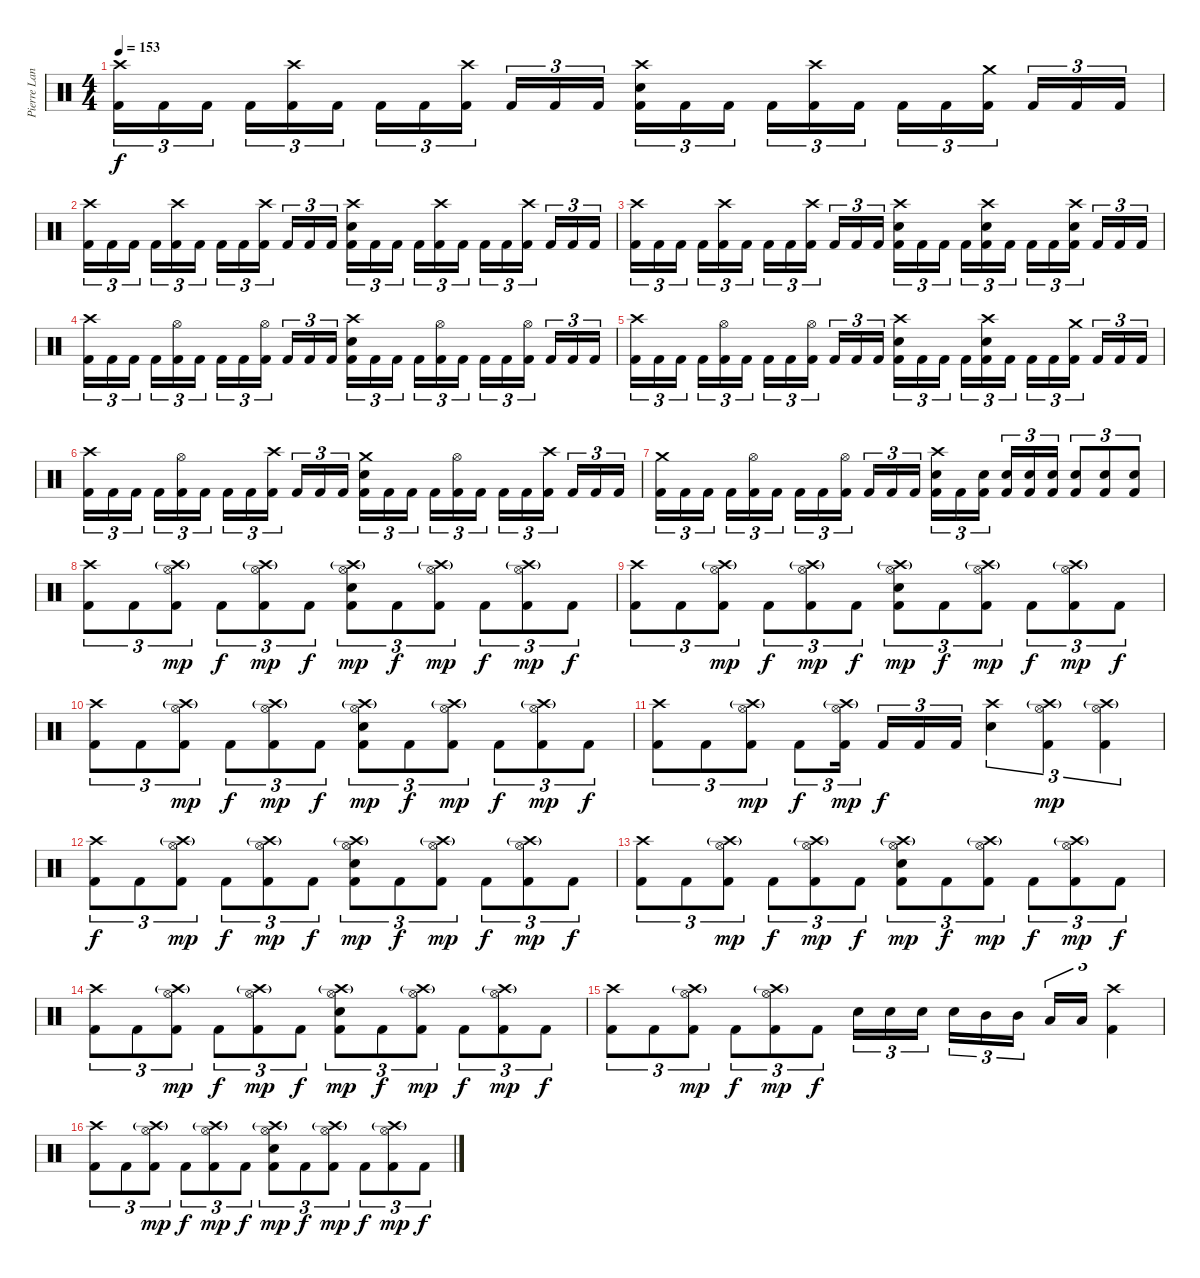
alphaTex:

\track ("Pierre Langlois (Drums)" "Pierre Lan") {instrument percussion}
\staff {score}
\articulation defaults
\ts (4 4)
\tempo 153
\clef neutral
\ks c
("Crash high (hit)" "Kick (hit) 2").16{tu (3 2) dy f} "Kick (hit) 2".16{tu (3 2)} "Kick (hit) 2".16{tu (3 2)} "Kick (hit) 2".16{tu (3 2)} ("Crash high (hit)" "Kick (hit) 2").16{tu (3 2)} "Kick (hit) 2".16{tu (3 2)} "Kick (hit) 2".16{tu (3 2)} "Kick (hit) 2".16{tu (3 2)} ("Crash high (hit)" "Kick (hit) 2").16{tu (3 2)} "Kick (hit) 2".16{tu (3 2)} "Kick (hit) 2".16{tu (3 2)} "Kick (hit) 2".16{tu (3 2)} ("Snare (hit) 2" "Crash high (hit)" "Kick (hit) 2").16{tu (3 2)} "Kick (hit) 2".16{tu (3 2)} "Kick (hit) 2".16{tu (3 2)} "Kick (hit) 2".16{tu (3 2)} ("Crash high (hit)" "Kick (hit) 2").16{tu (3 2)} "Kick (hit) 2".16{tu (3 2)} "Kick (hit) 2".16{tu (3 2)} "Kick (hit) 2".16{tu (3 2)} ("Crash medium (hit)" "Kick (hit) 2").16{tu (3 2)} "Kick (hit) 2".16{tu (3 2)} "Kick (hit) 2".16{tu (3 2)} "Kick (hit) 2".16{tu (3 2)} |
("Crash high (hit)" "Kick (hit) 2").16{tu (3 2)} "Kick (hit) 2".16{tu (3 2)} "Kick (hit) 2".16{tu (3 2)} "Kick (hit) 2".16{tu (3 2)} ("Crash high (hit)" "Kick (hit) 2").16{tu (3 2)} "Kick (hit) 2".16{tu (3 2)} "Kick (hit) 2".16{tu (3 2)} "Kick (hit) 2".16{tu (3 2)} ("Crash high (hit)" "Kick (hit) 2").16{tu (3 2)} "Kick (hit) 2".16{tu (3 2)} "Kick (hit) 2".16{tu (3 2)} "Kick (hit) 2".16{tu (3 2)} ("Snare (hit) 2" "Crash high (hit)" "Kick (hit) 2").16{tu (3 2)} "Kick (hit) 2".16{tu (3 2)} "Kick (hit) 2".16{tu (3 2)} "Kick (hit) 2".16{tu (3 2)} ("Crash high (hit)" "Kick (hit) 2").16{tu (3 2)} "Kick (hit) 2".16{tu (3 2)} "Kick (hit) 2".16{tu (3 2)} "Kick (hit) 2".16{tu (3 2)} ("Crash high (hit)" "Kick (hit) 2").16{tu (3 2)} "Kick (hit) 2".16{tu (3 2)} "Kick (hit) 2".16{tu (3 2)} "Kick (hit) 2".16{tu (3 2)} |
("Crash high (hit)" "Kick (hit) 2").16{tu (3 2)} "Kick (hit) 2".16{tu (3 2)} "Kick (hit) 2".16{tu (3 2)} "Kick (hit) 2".16{tu (3 2)} ("Crash high (hit)" "Kick (hit) 2").16{tu (3 2)} "Kick (hit) 2".16{tu (3 2)} "Kick (hit) 2".16{tu (3 2)} "Kick (hit) 2".16{tu (3 2)} ("Crash high (hit)" "Kick (hit) 2").16{tu (3 2)} "Kick (hit) 2".16{tu (3 2)} "Kick (hit) 2".16{tu (3 2)} "Kick (hit) 2".16{tu (3 2)} ("Snare (hit) 2" "Crash high (hit)" "Kick (hit) 2").16{tu (3 2)} "Kick (hit) 2".16{tu (3 2)} "Kick (hit) 2".16{tu (3 2)} "Kick (hit) 2".16{tu (3 2)} ("Snare (hit) 2" "Crash high (hit)" "Kick (hit) 2").16{tu (3 2)} "Kick (hit) 2".16{tu (3 2)} "Kick (hit) 2".16{tu (3 2)} "Kick (hit) 2".16{tu (3 2)} ("Snare (hit) 2" "Crash high (hit)" "Kick (hit) 2").16{tu (3 2)} "Kick (hit) 2".16{tu (3 2)} "Kick (hit) 2".16{tu (3 2)} "Kick (hit) 2".16{tu (3 2)} |
("Crash high (hit)" "Kick (hit) 2").16{tu (3 2)} "Kick (hit) 2".16{tu (3 2)} "Kick (hit) 2".16{tu (3 2)} "Kick (hit) 2".16{tu (3 2)} ("Hi-Hat (open)" "Kick (hit) 2").16{tu (3 2)} "Kick (hit) 2".16{tu (3 2)} "Kick (hit) 2".16{tu (3 2)} "Kick (hit) 2".16{tu (3 2)} ("Hi-Hat (open)" "Kick (hit) 2").16{tu (3 2)} "Kick (hit) 2".16{tu (3 2)} "Kick (hit) 2".16{tu (3 2)} "Kick (hit) 2".16{tu (3 2)} ("Snare (hit) 2" "Crash high (hit)" "Kick (hit) 2").16{tu (3 2)} "Kick (hit) 2".16{tu (3 2)} "Kick (hit) 2".16{tu (3 2)} "Kick (hit) 2".16{tu (3 2)} ("Hi-Hat (open)" "Kick (hit) 2").16{tu (3 2)} "Kick (hit) 2".16{tu (3 2)} "Kick (hit) 2".16{tu (3 2)} "Kick (hit) 2".16{tu (3 2)} ("Hi-Hat (open)" "Kick (hit) 2").16{tu (3 2)} "Kick (hit) 2".16{tu (3 2)} "Kick (hit) 2".16{tu (3 2)} "Kick (hit) 2".16{tu (3 2)} |
("Crash high (hit)" "Kick (hit) 2").16{tu (3 2)} "Kick (hit) 2".16{tu (3 2)} "Kick (hit) 2".16{tu (3 2)} "Kick (hit) 2".16{tu (3 2)} ("Hi-Hat (open)" "Kick (hit) 2").16{tu (3 2)} "Kick (hit) 2".16{tu (3 2)} "Kick (hit) 2".16{tu (3 2)} "Kick (hit) 2".16{tu (3 2)} ("Hi-Hat (open)" "Kick (hit) 2").16{tu (3 2)} "Kick (hit) 2".16{tu (3 2)} "Kick (hit) 2".16{tu (3 2)} "Kick (hit) 2".16{tu (3 2)} ("Snare (hit) 2" "Crash high (hit)" "Kick (hit) 2").16{tu (3 2)} "Kick (hit) 2".16{tu (3 2)} "Kick (hit) 2".16{tu (3 2)} "Kick (hit) 2".16{tu (3 2)} ("Snare (hit) 2" "Crash high (hit)" "Kick (hit) 2").16{tu (3 2)} "Kick (hit) 2".16{tu (3 2)} "Kick (hit) 2".16{tu (3 2)} "Kick (hit) 2".16{tu (3 2)} ("Crash medium (hit)" "Kick (hit) 2").16{tu (3 2)} "Kick (hit) 2".16{tu (3 2)} "Kick (hit) 2".16{tu (3 2)} "Kick (hit) 2".16{tu (3 2)} |
("Crash high (hit)" "Kick (hit) 2").16{tu (3 2)} "Kick (hit) 2".16{tu (3 2)} "Kick (hit) 2".16{tu (3 2)} "Kick (hit) 2".16{tu (3 2)} ("Hi-Hat (open)" "Kick (hit) 2").16{tu (3 2)} "Kick (hit) 2".16{tu (3 2)} "Kick (hit) 2".16{tu (3 2)} "Kick (hit) 2".16{tu (3 2)} ("Crash high (hit)" "Kick (hit) 2").16{tu (3 2)} "Kick (hit) 2".16{tu (3 2)} "Kick (hit) 2".16{tu (3 2)} "Kick (hit) 2".16{tu (3 2)} ("Snare (hit) 2" "Crash medium (hit)" "Kick (hit) 2").16{tu (3 2)} "Kick (hit) 2".16{tu (3 2)} "Kick (hit) 2".16{tu (3 2)} "Kick (hit) 2".16{tu (3 2)} ("Hi-Hat (open)" "Kick (hit) 2").16{tu (3 2)} "Kick (hit) 2".16{tu (3 2)} "Kick (hit) 2".16{tu (3 2)} "Kick (hit) 2".16{tu (3 2)} ("Crash high (hit)" "Kick (hit) 2").16{tu (3 2)} "Kick (hit) 2".16{tu (3 2)} "Kick (hit) 2".16{tu (3 2)} "Kick (hit) 2".16{tu (3 2)} |
("Crash medium (hit)" "Kick (hit) 2").16{tu (3 2)} "Kick (hit) 2".16{tu (3 2)} "Kick (hit) 2".16{tu (3 2)} "Kick (hit) 2".16{tu (3 2)} ("Hi-Hat (open)" "Kick (hit) 2").16{tu (3 2)} "Kick (hit) 2".16{tu (3 2)} "Kick (hit) 2".16{tu (3 2)} "Kick (hit) 2".16{tu (3 2)} ("Hi-Hat (open)" "Kick (hit) 2").16{tu (3 2)} "Kick (hit) 2".16{tu (3 2)} "Kick (hit) 2".16{tu (3 2)} "Kick (hit) 2".16{tu (3 2)} ("Snare (hit) 2" "Crash high (hit)" "Kick (hit) 2").16{tu (3 2)} "Kick (hit) 2".16{tu (3 2)} ("Snare (hit) 2" "Kick (hit) 2").16{tu (3 2)} ("Snare (hit) 2" "Kick (hit) 2").16{tu (3 2)} ("Snare (hit) 2" "Kick (hit) 2").16{tu (3 2)} ("Snare (hit) 2" "Kick (hit) 2").16{tu (3 2)} ("Snare (hit) 2" "Kick (hit) 2").8{tu (3 2)} ("Snare (hit) 2" "Kick (hit) 2").8{tu (3 2)} ("Snare (hit) 2" "Kick (hit) 2").8{tu (3 2)} |
("Crash high (hit)" "Kick (hit) 2").8{tu (3 2)} "Kick (hit) 2".8{tu (3 2)} ("Crash high (hit)"{g} "Hi-Hat (open)" "Kick (hit) 2").8{tu (3 2) dy mp} "Kick (hit) 2".8{tu (3 2) dy f} ("Crash high (hit)"{g} "Hi-Hat (open)" "Kick (hit) 2").8{tu (3 2) dy mp} "Kick (hit) 2".8{tu (3 2) dy f} ("Crash high (hit)"{g} "Snare (hit) 2" "Hi-Hat (open)" "Kick (hit) 2").8{tu (3 2) dy mp} "Kick (hit) 2".8{tu (3 2) dy f} ("Crash high (hit)"{g} "Hi-Hat (open)" "Kick (hit) 2").8{tu (3 2) dy mp} "Kick (hit) 2".8{tu (3 2) dy f} ("Crash high (hit)"{g} "Hi-Hat (open)" "Kick (hit) 2").8{tu (3 2) dy mp} "Kick (hit) 2".8{tu (3 2) dy f} |
("Crash high (hit)" "Kick (hit) 2").8{tu (3 2)} "Kick (hit) 2".8{tu (3 2)} ("Crash high (hit)"{g} "Hi-Hat (open)" "Kick (hit) 2").8{tu (3 2) dy mp} "Kick (hit) 2".8{tu (3 2) dy f} ("Crash high (hit)"{g} "Hi-Hat (open)" "Kick (hit) 2").8{tu (3 2) dy mp} "Kick (hit) 2".8{tu (3 2) dy f} ("Crash high (hit)"{g} "Snare (hit) 2" "Hi-Hat (open)" "Kick (hit) 2").8{tu (3 2) dy mp} "Kick (hit) 2".8{tu (3 2) dy f} ("Crash high (hit)"{g} "Hi-Hat (open)" "Kick (hit) 2").8{tu (3 2) dy mp} "Kick (hit) 2".8{tu (3 2) dy f} ("Crash high (hit)"{g} "Hi-Hat (open)" "Kick (hit) 2").8{tu (3 2) dy mp} "Kick (hit) 2".8{tu (3 2) dy f} |
("Crash high (hit)" "Kick (hit) 2").8{tu (3 2)} "Kick (hit) 2".8{tu (3 2)} ("Crash high (hit)"{g} "Hi-Hat (open)" "Kick (hit) 2").8{tu (3 2) dy mp} "Kick (hit) 2".8{tu (3 2) dy f} ("Crash high (hit)"{g} "Hi-Hat (open)" "Kick (hit) 2").8{tu (3 2) dy mp} "Kick (hit) 2".8{tu (3 2) dy f} ("Crash high (hit)"{g} "Snare (hit) 2" "Hi-Hat (open)" "Kick (hit) 2").8{tu (3 2) dy mp} "Kick (hit) 2".8{tu (3 2) dy f} ("Crash high (hit)"{g} "Hi-Hat (open)" "Kick (hit) 2").8{tu (3 2) dy mp} "Kick (hit) 2".8{tu (3 2) dy f} ("Crash high (hit)"{g} "Hi-Hat (open)" "Kick (hit) 2").8{tu (3 2) dy mp} "Kick (hit) 2".8{tu (3 2) dy f} |
("Crash high (hit)" "Kick (hit) 2").8{tu (3 2)} "Kick (hit) 2".8{tu (3 2)} ("Crash high (hit)"{g} "Hi-Hat (open)" "Kick (hit) 2").8{tu (3 2) dy mp} "Kick (hit) 2".8{tu (3 2) dy f} ("Crash high (hit)"{g} "Hi-Hat (open)" "Kick (hit) 2").16{tu (3 2) dy mp} "Kick (hit) 2".16{tu (3 2) dy f} "Kick (hit) 2".16{tu (3 2)} "Kick (hit) 2".16{tu (3 2)} ("Crash high (hit)" "Snare (hit) 2").4{tu (3 2)} ("Crash high (hit)"{g} "Hi-Hat (open)" "Kick (hit) 2").4{tu (3 2) dy mp} ("Crash high (hit)"{g} "Hi-Hat (open)" "Kick (hit) 2").4{tu (3 2)} |
("Crash high (hit)" "Kick (hit) 2").8{tu (3 2) dy f} "Kick (hit) 2".8{tu (3 2)} ("Crash high (hit)"{g} "Hi-Hat (open)" "Kick (hit) 2").8{tu (3 2) dy mp} "Kick (hit) 2".8{tu (3 2) dy f} ("Crash high (hit)"{g} "Hi-Hat (open)" "Kick (hit) 2").8{tu (3 2) dy mp} "Kick (hit) 2".8{tu (3 2) dy f} ("Crash high (hit)"{g} "Snare (hit) 2" "Hi-Hat (open)" "Kick (hit) 2").8{tu (3 2) dy mp} "Kick (hit) 2".8{tu (3 2) dy f} ("Crash high (hit)"{g} "Hi-Hat (open)" "Kick (hit) 2").8{tu (3 2) dy mp} "Kick (hit) 2".8{tu (3 2) dy f} ("Crash high (hit)"{g} "Hi-Hat (open)" "Kick (hit) 2").8{tu (3 2) dy mp} "Kick (hit) 2".8{tu (3 2) dy f} |
("Crash high (hit)" "Kick (hit) 2").8{tu (3 2)} "Kick (hit) 2".8{tu (3 2)} ("Crash high (hit)"{g} "Hi-Hat (open)" "Kick (hit) 2").8{tu (3 2) dy mp} "Kick (hit) 2".8{tu (3 2) dy f} ("Crash high (hit)"{g} "Hi-Hat (open)" "Kick (hit) 2").8{tu (3 2) dy mp} "Kick (hit) 2".8{tu (3 2) dy f} ("Crash high (hit)"{g} "Snare (hit) 2" "Hi-Hat (open)" "Kick (hit) 2").8{tu (3 2) dy mp} "Kick (hit) 2".8{tu (3 2) dy f} ("Crash high (hit)"{g} "Hi-Hat (open)" "Kick (hit) 2").8{tu (3 2) dy mp} "Kick (hit) 2".8{tu (3 2) dy f} ("Crash high (hit)"{g} "Hi-Hat (open)" "Kick (hit) 2").8{tu (3 2) dy mp} "Kick (hit) 2".8{tu (3 2) dy f} |
("Crash high (hit)" "Kick (hit) 2").8{tu (3 2)} "Kick (hit) 2".8{tu (3 2)} ("Crash high (hit)"{g} "Hi-Hat (open)" "Kick (hit) 2").8{tu (3 2) dy mp} "Kick (hit) 2".8{tu (3 2) dy f} ("Crash high (hit)"{g} "Hi-Hat (open)" "Kick (hit) 2").8{tu (3 2) dy mp} "Kick (hit) 2".8{tu (3 2) dy f} ("Crash high (hit)"{g} "Snare (hit) 2" "Hi-Hat (open)" "Kick (hit) 2").8{tu (3 2) dy mp} "Kick (hit) 2".8{tu (3 2) dy f} ("Crash high (hit)"{g} "Hi-Hat (open)" "Kick (hit) 2").8{tu (3 2) dy mp} "Kick (hit) 2".8{tu (3 2) dy f} ("Crash high (hit)"{g} "Hi-Hat (open)" "Kick (hit) 2").8{tu (3 2) dy mp} "Kick (hit) 2".8{tu (3 2) dy f} |
("Crash high (hit)" "Kick (hit) 2").8{tu (3 2)} "Kick (hit) 2".8{tu (3 2)} ("Crash high (hit)"{g} "Hi-Hat (open)" "Kick (hit) 2").8{tu (3 2) dy mp} "Kick (hit) 2".8{tu (3 2) dy f} ("Crash high (hit)"{g} "Hi-Hat (open)" "Kick (hit) 2").8{tu (3 2) dy mp} "Kick (hit) 2".8{tu (3 2) dy f} "Snare (hit) 2".16{tu (3 2)} "Snare (hit) 2".16{tu (3 2)} "Snare (hit) 2".16{tu (3 2)} "Snare (hit) 2".16{tu (3 2)} "Mid Tom (hit)".16{tu (3 2)} "Mid Tom (hit)".16{tu (3 2)} "Low Tom (hit)".16{tu (3 2)} "Low Tom (hit)".16{tu (3 2)} ("Crash high (hit)" "Kick (hit) 2").4{tu (3 2)} |
("Crash high (hit)" "Kick (hit) 2").8{tu (3 2)} "Kick (hit) 2".8{tu (3 2)} ("Crash high (hit)"{g} "Hi-Hat (open)" "Kick (hit) 2").8{tu (3 2) dy mp} "Kick (hit) 2".8{tu (3 2) dy f} ("Crash high (hit)"{g} "Hi-Hat (open)" "Kick (hit) 2").8{tu (3 2) dy mp} "Kick (hit) 2".8{tu (3 2) dy f} ("Crash high (hit)"{g} "Snare (hit) 2" "Hi-Hat (open)" "Kick (hit) 2").8{tu (3 2) dy mp} "Kick (hit) 2".8{tu (3 2) dy f} ("Crash high (hit)"{g} "Hi-Hat (open)" "Kick (hit) 2").8{tu (3 2) dy mp} "Kick (hit) 2".8{tu (3 2) dy f} ("Crash high (hit)"{g} "Hi-Hat (open)" "Kick (hit) 2").8{tu (3 2) dy mp} "Kick (hit) 2".8{tu (3 2) dy f}
